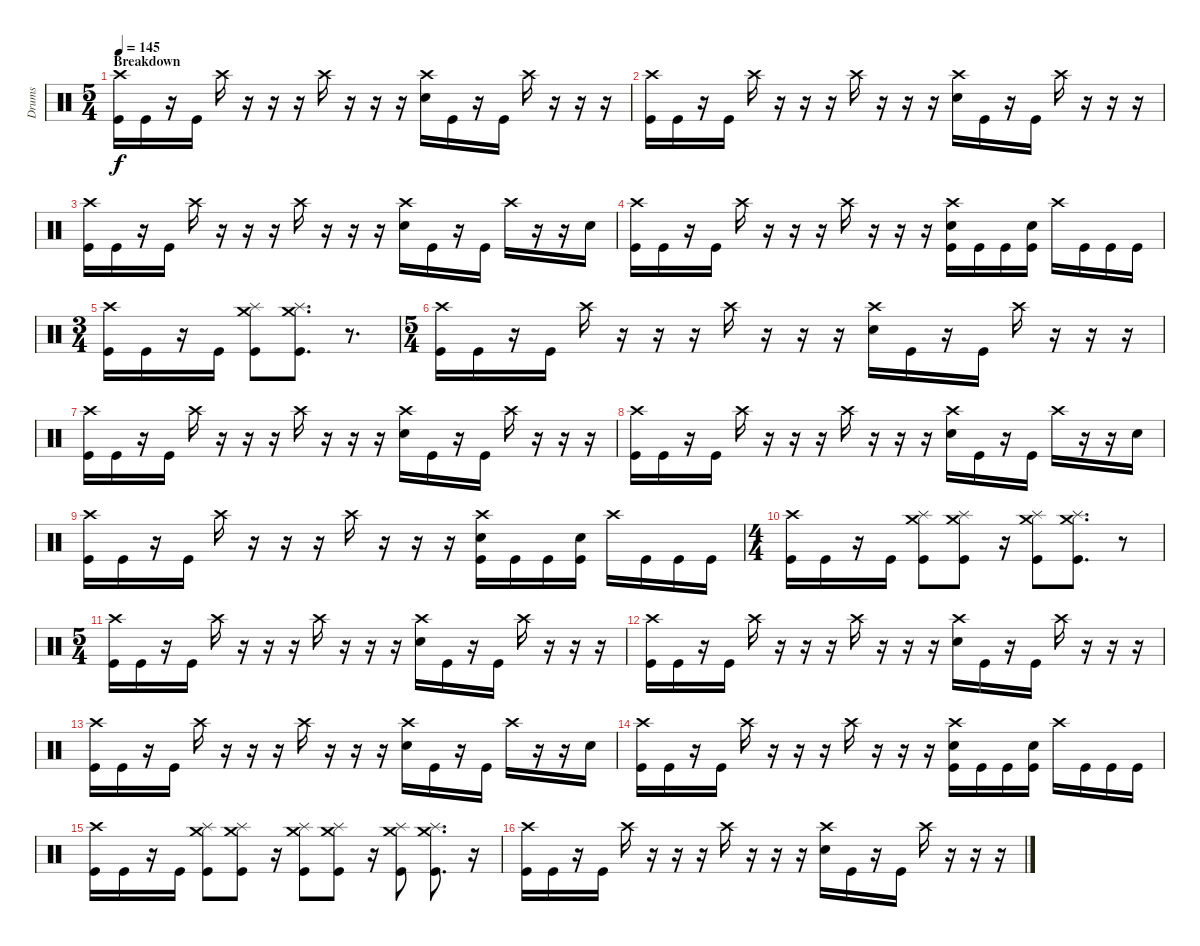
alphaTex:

\track ("Drums" "Drums") {instrument percussion}
\staff {score}
\articulation defaults
\ts (5 4)
\section ("" "Breakdown")
\tempo 145
\clef neutral
\ks c
("Crash high (hit)" "Kick (hit)").16{dy f} "Kick (hit)".16 r.16 "Kick (hit)".16 "Crash high (hit)".16 r.16 r.16 r.16 "Crash high (hit)".16 r.16 r.16 r.16 ("Crash high (hit)" "Electric Snare (hit)").16 "Kick (hit)".16 r.16 "Kick (hit)".16 "Crash high (hit)".16 r.16 r.16 r.16 |
("Crash high (hit)" "Kick (hit)").16 "Kick (hit)".16 r.16 "Kick (hit)".16 "Crash high (hit)".16 r.16 r.16 r.16 "Crash high (hit)".16 r.16 r.16 r.16 ("Crash high (hit)" "Electric Snare (hit)").16 "Kick (hit)".16 r.16 "Kick (hit)".16 "Crash high (hit)".16 r.16 r.16 r.16 |
("Crash high (hit)" "Kick (hit)").16 "Kick (hit)".16 r.16 "Kick (hit)".16 "Crash high (hit)".16 r.16 r.16 r.16 "Crash high (hit)".16 r.16 r.16 r.16 ("Crash high (hit)" "Electric Snare (hit)").16 "Kick (hit)".16 r.16 "Kick (hit)".16 "Crash high (hit)".16 r.16 r.16 "Electric Snare (hit)".16 |
("Crash high (hit)" "Kick (hit)").16 "Kick (hit)".16 r.16 "Kick (hit)".16 "Crash high (hit)".16 r.16 r.16 r.16 "Crash high (hit)".16 r.16 r.16 r.16 ("Crash high (hit)" "Kick (hit)" "Electric Snare (hit)").16 "Kick (hit)".16 "Kick (hit)".16 ("Kick (hit)" "Electric Snare (hit)").16 "Crash high (hit)".16 "Kick (hit)".16 "Kick (hit)".16 "Kick (hit)".16 |
\ts (3 4)
("Crash high (hit)" "Kick (hit)").16 "Kick (hit)".16 r.16 "Kick (hit)".16 ("Splash (hit)" "Crash medium (hit)" "Kick (hit)").8 ("Splash (hit)" "Crash medium (hit)" "Kick (hit)").8{d} r.8{d} |
\ts (5 4)
("Crash high (hit)" "Kick (hit)").16 "Kick (hit)".16 r.16 "Kick (hit)".16 "Crash high (hit)".16 r.16 r.16 r.16 "Crash high (hit)".16 r.16 r.16 r.16 ("Crash high (hit)" "Electric Snare (hit)").16 "Kick (hit)".16 r.16 "Kick (hit)".16 "Crash high (hit)".16 r.16 r.16 r.16 |
("Crash high (hit)" "Kick (hit)").16 "Kick (hit)".16 r.16 "Kick (hit)".16 "Crash high (hit)".16 r.16 r.16 r.16 "Crash high (hit)".16 r.16 r.16 r.16 ("Crash high (hit)" "Electric Snare (hit)").16 "Kick (hit)".16 r.16 "Kick (hit)".16 "Crash high (hit)".16 r.16 r.16 r.16 |
("Crash high (hit)" "Kick (hit)").16 "Kick (hit)".16 r.16 "Kick (hit)".16 "Crash high (hit)".16 r.16 r.16 r.16 "Crash high (hit)".16 r.16 r.16 r.16 ("Crash high (hit)" "Electric Snare (hit)").16 "Kick (hit)".16 r.16 "Kick (hit)".16 "Crash high (hit)".16 r.16 r.16 "Electric Snare (hit)".16 |
("Crash high (hit)" "Kick (hit)").16 "Kick (hit)".16 r.16 "Kick (hit)".16 "Crash high (hit)".16 r.16 r.16 r.16 "Crash high (hit)".16 r.16 r.16 r.16 ("Crash high (hit)" "Kick (hit)" "Electric Snare (hit)").16 "Kick (hit)".16 "Kick (hit)".16 ("Kick (hit)" "Electric Snare (hit)").16 "Crash high (hit)".16 "Kick (hit)".16 "Kick (hit)".16 "Kick (hit)".16 |
\ts (4 4)
("Crash high (hit)" "Kick (hit)").16 "Kick (hit)".16 r.16 "Kick (hit)".16 ("Splash (hit)" "Crash medium (hit)" "Kick (hit)").8 ("Splash (hit)" "Crash medium (hit)" "Kick (hit)").8 r.16 ("Splash (hit)" "Crash medium (hit)" "Kick (hit)").8 ("Splash (hit)" "Crash medium (hit)" "Kick (hit)").8{d} r.8 |
\ts (5 4)
("Crash high (hit)" "Kick (hit)").16 "Kick (hit)".16 r.16 "Kick (hit)".16 "Crash high (hit)".16 r.16 r.16 r.16 "Crash high (hit)".16 r.16 r.16 r.16 ("Crash high (hit)" "Electric Snare (hit)").16 "Kick (hit)".16 r.16 "Kick (hit)".16 "Crash high (hit)".16 r.16 r.16 r.16 |
("Crash high (hit)" "Kick (hit)").16 "Kick (hit)".16 r.16 "Kick (hit)".16 "Crash high (hit)".16 r.16 r.16 r.16 "Crash high (hit)".16 r.16 r.16 r.16 ("Crash high (hit)" "Electric Snare (hit)").16 "Kick (hit)".16 r.16 "Kick (hit)".16 "Crash high (hit)".16 r.16 r.16 r.16 |
("Crash high (hit)" "Kick (hit)").16 "Kick (hit)".16 r.16 "Kick (hit)".16 "Crash high (hit)".16 r.16 r.16 r.16 "Crash high (hit)".16 r.16 r.16 r.16 ("Crash high (hit)" "Electric Snare (hit)").16 "Kick (hit)".16 r.16 "Kick (hit)".16 "Crash high (hit)".16 r.16 r.16 "Electric Snare (hit)".16 |
("Crash high (hit)" "Kick (hit)").16 "Kick (hit)".16 r.16 "Kick (hit)".16 "Crash high (hit)".16 r.16 r.16 r.16 "Crash high (hit)".16 r.16 r.16 r.16 ("Crash high (hit)" "Kick (hit)" "Electric Snare (hit)").16 "Kick (hit)".16 "Kick (hit)".16 ("Kick (hit)" "Electric Snare (hit)").16 "Crash high (hit)".16 "Kick (hit)".16 "Kick (hit)".16 "Kick (hit)".16 |
("Crash high (hit)" "Kick (hit)").16 "Kick (hit)".16 r.16 "Kick (hit)".16 ("Splash (hit)" "Crash medium (hit)" "Kick (hit)").8 ("Splash (hit)" "Crash medium (hit)" "Kick (hit)").8 r.16 ("Splash (hit)" "Crash medium (hit)" "Kick (hit)").8 ("Splash (hit)" "Crash medium (hit)" "Kick (hit)").8 r.16 ("Splash (hit)" "Crash medium (hit)" "Kick (hit)").8 ("Splash (hit)" "Crash medium (hit)" "Kick (hit)").8{d} r.16 |
("Crash high (hit)" "Kick (hit)").16 "Kick (hit)".16 r.16 "Kick (hit)".16 "Crash high (hit)".16 r.16 r.16 r.16 "Crash high (hit)".16 r.16 r.16 r.16 ("Crash high (hit)" "Electric Snare (hit)").16 "Kick (hit)".16 r.16 "Kick (hit)".16 "Crash high (hit)".16 r.16 r.16 r.16
